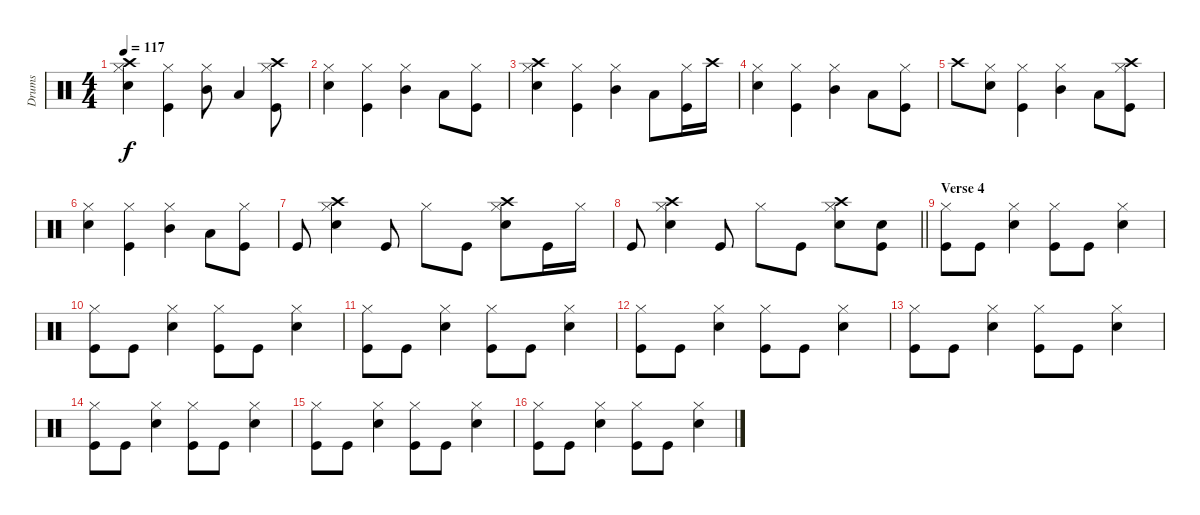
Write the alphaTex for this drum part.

\track ("Drums" "Drums") {instrument percussion}
\staff {score}
\articulation defaults
\ts (4 4)
\tempo 117
\clef neutral
\ks c
("Electric Snare (hit)" "Hi-Hat (closed)" "Crash high (hit)").4{dy f} ("Kick (hit)" "Hi-Hat (closed)").4 ("Hi-Hat (closed)" "Mid Tom (hit)").8 "Low Tom (hit)".4 ("Kick (hit)" "Hi-Hat (closed)" "Crash high (hit)").8 |
("Electric Snare (hit)" "Hi-Hat (closed)").4 ("Kick (hit)" "Hi-Hat (closed)").4 ("Hi-Hat (closed)" "Mid Tom (hit)").4 "Low Tom (hit)".8 ("Kick (hit)" "Hi-Hat (closed)").8 |
("Crash high (hit)" "Electric Snare (hit)" "Hi-Hat (closed)").4 ("Kick (hit)" "Hi-Hat (closed)").4 ("Hi-Hat (closed)" "Mid Tom (hit)").4 "Low Tom (hit)".8 ("Kick (hit)" "Hi-Hat (closed)").16 "Crash high (hit)".16 |
("Electric Snare (hit)" "Hi-Hat (closed)").4 ("Kick (hit)" "Hi-Hat (closed)").4 ("Hi-Hat (closed)" "Mid Tom (hit)").4 "Low Tom (hit)".8 ("Kick (hit)" "Hi-Hat (closed)").8 |
"Crash high (hit)".8 ("Electric Snare (hit)" "Hi-Hat (closed)").8 ("Kick (hit)" "Hi-Hat (closed)").4 ("Hi-Hat (closed)" "Mid Tom (hit)").4 "Low Tom (hit)".8 ("Kick (hit)" "Hi-Hat (closed)" "Crash high (hit)").8 |
("Electric Snare (hit)" "Hi-Hat (closed)").4 ("Kick (hit)" "Hi-Hat (closed)").4 ("Hi-Hat (closed)" "Mid Tom (hit)").4 "Low Tom (hit)".8 ("Kick (hit)" "Hi-Hat (closed)").8 |
"Kick (hit)".8 ("Electric Snare (hit)" "Crash high (hit)" "Hi-Hat (closed)").4 "Kick (hit)".8 "Hi-Hat (closed)".8 "Kick (hit)".8 ("Crash high (hit)" "Electric Snare (hit)" "Hi-Hat (closed)").8 "Kick (hit)".16 "Hi-Hat (closed)".16 |
\barLineRight lightlight "Kick (hit)".8
("Electric Snare (hit)" "Crash high (hit)" "Hi-Hat (closed)").4 "Kick (hit)".8 "Hi-Hat (closed)".8 "Kick (hit)".8 ("Crash high (hit)" "Electric Snare (hit)" "Hi-Hat (closed)").8 ("Kick (hit)" "Electric Snare (hit)").8 |
\section ("" "Verse 4")
("Kick (hit)" "Hi-Hat (closed)").8 "Kick (hit)".8 ("Electric Snare (hit)" "Hi-Hat (closed)").4 ("Kick (hit)" "Hi-Hat (closed)").8 "Kick (hit)".8 ("Electric Snare (hit)" "Hi-Hat (closed)").4 |
("Kick (hit)" "Hi-Hat (closed)").8 "Kick (hit)".8 ("Electric Snare (hit)" "Hi-Hat (closed)").4 ("Kick (hit)" "Hi-Hat (closed)").8 "Kick (hit)".8 ("Electric Snare (hit)" "Hi-Hat (closed)").4 |
("Kick (hit)" "Hi-Hat (closed)").8 "Kick (hit)".8 ("Electric Snare (hit)" "Hi-Hat (closed)").4 ("Kick (hit)" "Hi-Hat (closed)").8 "Kick (hit)".8 ("Electric Snare (hit)" "Hi-Hat (closed)").4 |
("Kick (hit)" "Hi-Hat (closed)").8 "Kick (hit)".8 ("Electric Snare (hit)" "Hi-Hat (closed)").4 ("Kick (hit)" "Hi-Hat (closed)").8 "Kick (hit)".8 ("Electric Snare (hit)" "Hi-Hat (closed)").4 |
("Kick (hit)" "Hi-Hat (closed)").8 "Kick (hit)".8 ("Electric Snare (hit)" "Hi-Hat (closed)").4 ("Kick (hit)" "Hi-Hat (closed)").8 "Kick (hit)".8 ("Electric Snare (hit)" "Hi-Hat (closed)").4 |
("Kick (hit)" "Hi-Hat (closed)").8 "Kick (hit)".8 ("Electric Snare (hit)" "Hi-Hat (closed)").4 ("Kick (hit)" "Hi-Hat (closed)").8 "Kick (hit)".8 ("Electric Snare (hit)" "Hi-Hat (closed)").4 |
("Kick (hit)" "Hi-Hat (closed)").8 "Kick (hit)".8 ("Electric Snare (hit)" "Hi-Hat (closed)").4 ("Kick (hit)" "Hi-Hat (closed)").8 "Kick (hit)".8 ("Electric Snare (hit)" "Hi-Hat (closed)").4 |
("Kick (hit)" "Hi-Hat (closed)").8 "Kick (hit)".8 ("Electric Snare (hit)" "Hi-Hat (closed)").4 ("Kick (hit)" "Hi-Hat (closed)").8 "Kick (hit)".8 ("Electric Snare (hit)" "Hi-Hat (closed)").4
